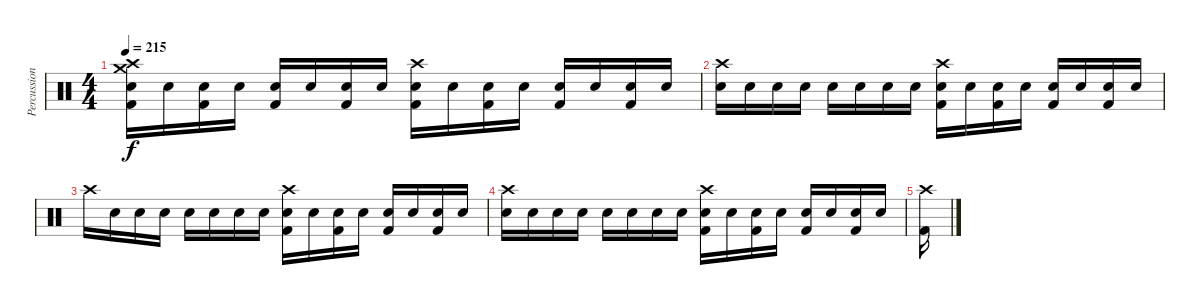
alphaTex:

\track ("Percussion" "Percussion") {instrument percussion}
\staff {score}
\articulation defaults
\ts (4 4)
\tempo 215
\clef neutral
\ks c
("Crash medium (hit)" "Crash high (hit)" "Kick (hit) 2" "Snare (hit)").16{dy f} "Snare (hit)".16 ("Kick (hit) 2" "Snare (hit)").16 "Snare (hit)".16 ("Kick (hit) 2" "Snare (hit)").16 "Snare (hit)".16 ("Kick (hit) 2" "Snare (hit)").16 "Snare (hit)".16 ("Crash high (hit)" "Kick (hit) 2" "Snare (hit)").16 "Snare (hit)".16 ("Kick (hit) 2" "Snare (hit)").16 "Snare (hit)".16 ("Kick (hit) 2" "Snare (hit)").16 "Snare (hit)".16 ("Kick (hit) 2" "Snare (hit)").16 "Snare (hit)".16 |
("Crash high (hit)" "Snare (hit) 2").16 "Snare (hit)".16 "Snare (hit)".16 "Snare (hit)".16 "Snare (hit)".16 "Snare (hit)".16 "Snare (hit)".16 "Snare (hit)".16 ("Crash high (hit)" "Kick (hit) 2" "Snare (hit)").16 "Snare (hit)".16 ("Kick (hit) 2" "Snare (hit)").16 "Snare (hit)".16 ("Kick (hit) 2" "Snare (hit)").16 "Snare (hit)".16 ("Kick (hit) 2" "Snare (hit)").16 "Snare (hit)".16 |
"Crash high (hit)".16 "Snare (hit)".16 "Snare (hit)".16 "Snare (hit)".16 "Snare (hit)".16 "Snare (hit)".16 "Snare (hit)".16 "Snare (hit)".16 ("Crash high (hit)" "Kick (hit) 2" "Snare (hit)").16 "Snare (hit)".16 ("Kick (hit) 2" "Snare (hit)").16 "Snare (hit)".16 ("Kick (hit) 2" "Snare (hit)").16 "Snare (hit)".16 ("Kick (hit) 2" "Snare (hit)").16 "Snare (hit)".16 |
("Crash high (hit)" "Snare (hit) 2").16 "Snare (hit)".16 "Snare (hit)".16 "Snare (hit)".16 "Snare (hit)".16 "Snare (hit)".16 "Snare (hit)".16 "Snare (hit)".16 ("Crash high (hit)" "Kick (hit) 2" "Snare (hit)").16 "Snare (hit)".16 ("Kick (hit) 2" "Snare (hit)").16 "Snare (hit)".16 ("Kick (hit) 2" "Snare (hit)").16 "Snare (hit)".16 ("Kick (hit) 2" "Snare (hit)").16 "Snare (hit)".16 |
("Crash high (hit)" "Kick (hit) 2").16
